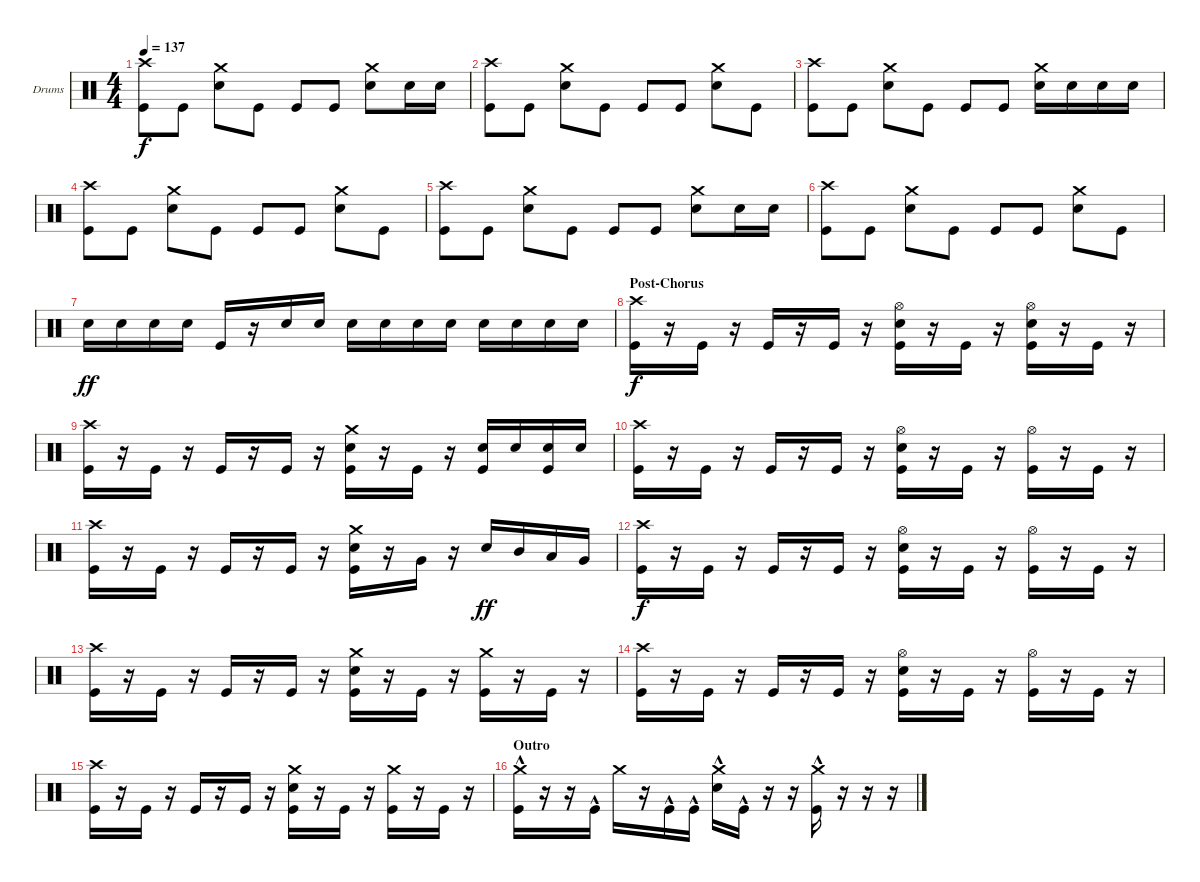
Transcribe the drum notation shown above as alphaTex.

\defaultSystemsLayout 4
\bracketExtendMode groupsimilarinstruments
\firstSystemTrackNameOrientation horizontal
\otherSystemsTrackNameOrientation horizontal
\track ("Drumkit - Paul" "Drums") {instrument percussion}
\staff {score}
\articulation defaults
\ts (4 4)
\tempo 137
\clef neutral
\ks c
("Kick (hit)" "Crash high (hit)").8{dy f} "Kick (hit)".8 ("Snare (hit) 2" "Crash medium (hit)").8 "Kick (hit)".8 "Kick (hit)".8 "Kick (hit)".8 ("Snare (hit) 2" "Crash medium (hit)").8 "Snare (hit) 2".16 "Snare (hit) 2".16 |
("Kick (hit)" "Crash high (hit)").8 "Kick (hit)".8 ("Snare (hit) 2" "Crash medium (hit)").8 "Kick (hit)".8 "Kick (hit)".8 "Kick (hit)".8 ("Snare (hit) 2" "Crash medium (hit)").8 "Kick (hit)".8 |
("Kick (hit)" "Crash high (hit)").8 "Kick (hit)".8 ("Snare (hit) 2" "Crash medium (hit)").8 "Kick (hit)".8 "Kick (hit)".8 "Kick (hit)".8 ("Snare (hit) 2" "Crash medium (hit)").16 "Snare (hit) 2".16 "Snare (hit) 2".16 "Snare (hit) 2".16 |
("Kick (hit)" "Crash high (hit)").8 "Kick (hit)".8 ("Snare (hit) 2" "Crash medium (hit)").8 "Kick (hit)".8 "Kick (hit)".8 "Kick (hit)".8 ("Snare (hit) 2" "Crash medium (hit)").8 "Kick (hit)".8 |
("Kick (hit)" "Crash high (hit)").8 "Kick (hit)".8 ("Snare (hit) 2" "Crash medium (hit)").8 "Kick (hit)".8 "Kick (hit)".8 "Kick (hit)".8 ("Snare (hit) 2" "Crash medium (hit)").8 "Snare (hit) 2".16 "Snare (hit) 2".16 |
("Kick (hit)" "Crash high (hit)").8 "Kick (hit)".8 ("Snare (hit) 2" "Crash medium (hit)").8 "Kick (hit)".8 "Kick (hit)".8 "Kick (hit)".8 ("Snare (hit) 2" "Crash medium (hit)").8 "Kick (hit)".8 |
"Snare (hit) 2".16{dy ff} "Snare (hit) 2".16 "Snare (hit) 2".16 "Snare (hit) 2".16 "Kick (hit)".16 r.16 "Snare (hit) 2".16 "Snare (hit) 2".16 "Snare (hit) 2".16 "Snare (hit) 2".16 "Snare (hit) 2".16 "Snare (hit) 2".16 "Snare (hit) 2".16 "Snare (hit) 2".16 "Snare (hit) 2".16 "Snare (hit) 2".16 |
\section ("" "Post-Chorus")
("Kick (hit)" "Crash high (hit)").16{dy f} r.16 "Kick (hit)".16 r.16 "Kick (hit)".16 r.16 "Kick (hit)".16 r.16 ("Kick (hit)" "Snare (hit) 2" "Hi-Hat (open)").16 r.16 "Kick (hit)".16 r.16 ("Kick (hit)" "Hi-Hat (open)" "Snare (hit) 2").16 r.16 "Kick (hit)".16 r.16 |
("Kick (hit)" "Crash high (hit)").16 r.16 "Kick (hit)".16 r.16 "Kick (hit)".16 r.16 "Kick (hit)".16 r.16 ("Kick (hit)" "Snare (hit) 2" "Crash medium (hit)").16 r.16 "Kick (hit)".16 r.16 ("Snare (hit) 2" "Kick (hit)").16 "Snare (hit) 2".16 ("Snare (hit) 2" "Kick (hit)").16 "Snare (hit) 2".16 |
("Kick (hit)" "Crash high (hit)").16 r.16 "Kick (hit)".16 r.16 "Kick (hit)".16 r.16 "Kick (hit)".16 r.16 ("Kick (hit)" "Snare (hit) 2" "Hi-Hat (open)").16 r.16 "Kick (hit)".16 r.16 ("Kick (hit)" "Hi-Hat (open)").16 r.16 "Kick (hit)".16 r.16 |
("Kick (hit)" "Crash high (hit)").16 r.16 "Kick (hit)".16 r.16 "Kick (hit)".16 r.16 "Kick (hit)".16 r.16 ("Kick (hit)" "Snare (hit) 2" "Crash medium (hit)").16 r.16 "Very Low Tom (hit)".16 r.16 "Snare (hit) 2".16{dy ff} "Mid Tom (hit)".16 "Low Tom (hit)".16 "Very Low Tom (hit)".16 |
("Kick (hit)" "Crash high (hit)").16{dy f} r.16 "Kick (hit)".16 r.16 "Kick (hit)".16 r.16 "Kick (hit)".16 r.16 ("Kick (hit)" "Snare (hit) 2" "Hi-Hat (open)").16 r.16 "Kick (hit)".16 r.16 ("Kick (hit)" "Hi-Hat (open)").16 r.16 "Kick (hit)".16 r.16 |
("Kick (hit)" "Crash high (hit)").16 r.16 "Kick (hit)".16 r.16 "Kick (hit)".16 r.16 "Kick (hit)".16 r.16 ("Kick (hit)" "Snare (hit) 2" "Crash medium (hit)").16 r.16 "Kick (hit)".16 r.16 ("Kick (hit)" "Crash medium (hit)").16 r.16 "Kick (hit)".16 r.16 |
("Kick (hit)" "Crash high (hit)").16 r.16 "Kick (hit)".16 r.16 "Kick (hit)".16 r.16 "Kick (hit)".16 r.16 ("Kick (hit)" "Snare (hit) 2" "Hi-Hat (open)").16 r.16 "Kick (hit)".16 r.16 ("Kick (hit)" "Hi-Hat (open)").16 r.16 "Kick (hit)".16 r.16 |
("Kick (hit)" "Crash high (hit)").16 r.16 "Kick (hit)".16 r.16 "Kick (hit)".16 r.16 "Kick (hit)".16 r.16 ("Kick (hit)" "Snare (hit) 2" "Crash medium (hit)").16 r.16 "Kick (hit)".16 r.16 ("Kick (hit)" "Crash medium (hit)").16 r.16 "Kick (hit)".16 r.16 |
\section ("" "Outro")
("Crash medium (hit)" "Kick (hit)"{hac}).16 r.16 r.16 "Kick (hit)"{hac}.16 "Crash medium (hit)".16 r.16 "Kick (hit)"{hac}.16 "Kick (hit)"{hac}.16 ("Crash medium (hit)" "Snare (hit) 2"{hac}).16 "Kick (hit)"{hac}.16 r.16 r.16 ("Crash medium (hit)" "Kick (hit)"{hac}).16 r.16 r.16 r.16
